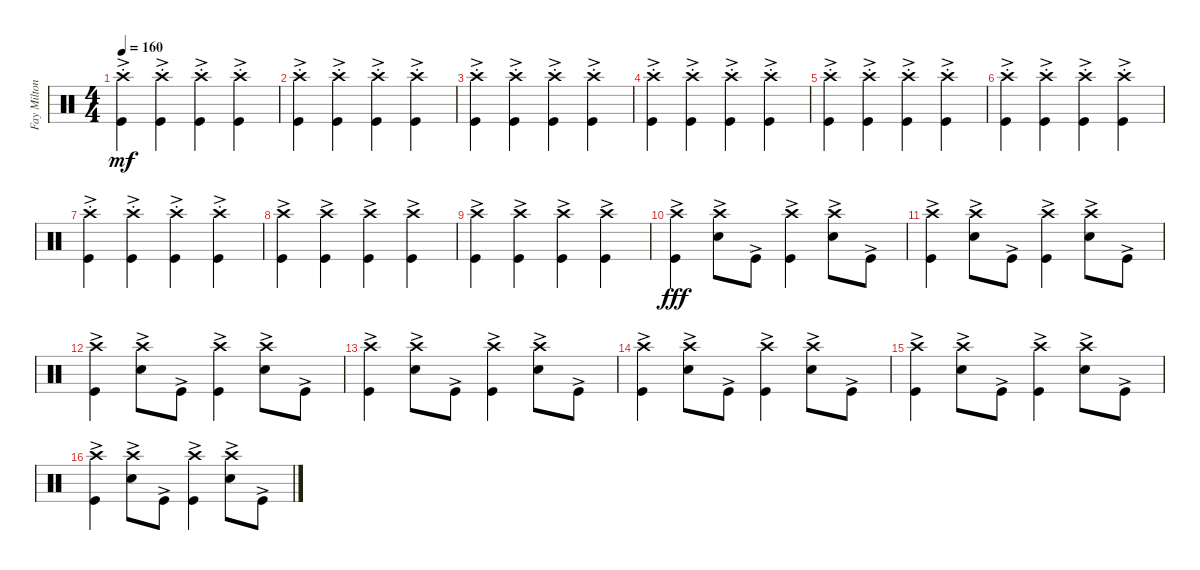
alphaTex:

\track ("Fay Milton - Drums" "Fay Milton") {instrument percussion}
\staff {score}
\articulation defaults
\ts (4 4)
\tempo 160
\clef neutral
\ks c
("Crash high (hit)"{ac st} "Kick (hit)"{st}).4{dy mf} ("Crash high (hit)"{ac st} "Kick (hit)"{st}).4 ("Crash high (hit)"{ac st} "Kick (hit)"{st}).4 ("Crash high (hit)"{ac st} "Kick (hit)"{st}).4 |
("Crash high (hit)"{ac st} "Kick (hit)"{st}).4 ("Crash high (hit)"{ac st} "Kick (hit)"{st}).4 ("Crash high (hit)"{ac st} "Kick (hit)"{st}).4 ("Crash high (hit)"{ac st} "Kick (hit)"{st}).4 |
("Crash high (hit)"{ac st} "Kick (hit)"{st}).4 ("Crash high (hit)"{ac st} "Kick (hit)"{st}).4 ("Crash high (hit)"{ac st} "Kick (hit)"{st}).4 ("Crash high (hit)"{ac st} "Kick (hit)"{st}).4 |
("Crash high (hit)"{ac st} "Kick (hit)"{st}).4 ("Crash high (hit)"{ac st} "Kick (hit)"{st}).4 ("Crash high (hit)"{ac st} "Kick (hit)"{st}).4 ("Crash high (hit)"{ac st} "Kick (hit)"{st}).4 |
("Crash high (hit)"{ac st} "Kick (hit)"{st}).4 ("Crash high (hit)"{ac st} "Kick (hit)"{st}).4 ("Crash high (hit)"{ac st} "Kick (hit)"{st}).4 ("Crash high (hit)"{ac st} "Kick (hit)"{st}).4 |
("Crash high (hit)"{ac st} "Kick (hit)"{st}).4 ("Crash high (hit)"{ac st} "Kick (hit)"{st}).4 ("Crash high (hit)"{ac st} "Kick (hit)"{st}).4 ("Crash high (hit)"{ac st} "Kick (hit)"{st}).4 |
("Crash high (hit)"{ac st} "Kick (hit)"{st}).4 ("Crash high (hit)"{ac st} "Kick (hit)"{st}).4 ("Crash high (hit)"{ac st} "Kick (hit)"{st}).4 ("Crash high (hit)"{ac st} "Kick (hit)"{st}).4 |
("Crash high (hit)"{ac} "Kick (hit)").4 ("Crash high (hit)"{ac} "Kick (hit)").4 ("Crash high (hit)"{ac} "Kick (hit)").4 ("Crash high (hit)"{ac} "Kick (hit)").4 |
("Crash high (hit)"{ac} "Kick (hit)").4 ("Crash high (hit)"{ac} "Kick (hit)").4 ("Crash high (hit)"{ac} "Kick (hit)").4 ("Crash high (hit)"{ac} "Kick (hit)").4 |
("Crash high (hit)"{ac} "Kick (hit)"{ac}).4{dy fff} ("Crash high (hit)"{ac} "Snare (hit) 2"{ac}).8 "Kick (hit)"{ac}.8 ("Crash high (hit)"{ac} "Kick (hit)"{ac}).4 ("Crash high (hit)"{ac} "Snare (hit) 2"{ac}).8 "Kick (hit)"{ac}.8 |
("Crash high (hit)"{ac} "Kick (hit)"{ac}).4 ("Crash high (hit)"{ac} "Snare (hit) 2"{ac}).8 "Kick (hit)"{ac}.8 ("Crash high (hit)"{ac} "Kick (hit)"{ac}).4 ("Crash high (hit)"{ac} "Snare (hit) 2"{ac}).8 "Kick (hit)"{ac}.8 |
("Crash high (hit)"{ac} "Kick (hit)"{ac}).4 ("Crash high (hit)"{ac} "Snare (hit) 2"{ac}).8 "Kick (hit)"{ac}.8 ("Crash high (hit)"{ac} "Kick (hit)"{ac}).4 ("Crash high (hit)"{ac} "Snare (hit) 2"{ac}).8 "Kick (hit)"{ac}.8 |
("Crash high (hit)"{ac} "Kick (hit)"{ac}).4 ("Crash high (hit)"{ac} "Snare (hit) 2"{ac}).8 "Kick (hit)"{ac}.8 ("Crash high (hit)"{ac} "Kick (hit)"{ac}).4 ("Crash high (hit)"{ac} "Snare (hit) 2"{ac}).8 "Kick (hit)"{ac}.8 |
("Crash high (hit)"{ac} "Kick (hit)"{ac}).4 ("Crash high (hit)"{ac} "Snare (hit) 2"{ac}).8 "Kick (hit)"{ac}.8 ("Crash high (hit)"{ac} "Kick (hit)"{ac}).4 ("Crash high (hit)"{ac} "Snare (hit) 2"{ac}).8 "Kick (hit)"{ac}.8 |
("Crash high (hit)"{ac} "Kick (hit)"{ac}).4 ("Crash high (hit)"{ac} "Snare (hit) 2"{ac}).8 "Kick (hit)"{ac}.8 ("Crash high (hit)"{ac} "Kick (hit)"{ac}).4 ("Crash high (hit)"{ac} "Snare (hit) 2"{ac}).8 "Kick (hit)"{ac}.8 |
("Crash high (hit)"{ac} "Kick (hit)"{ac}).4 ("Crash high (hit)"{ac} "Snare (hit) 2"{ac}).8 "Kick (hit)"{ac}.8 ("Crash high (hit)"{ac} "Kick (hit)"{ac}).4 ("Crash high (hit)"{ac} "Snare (hit) 2"{ac}).8 "Kick (hit)"{ac}.8
